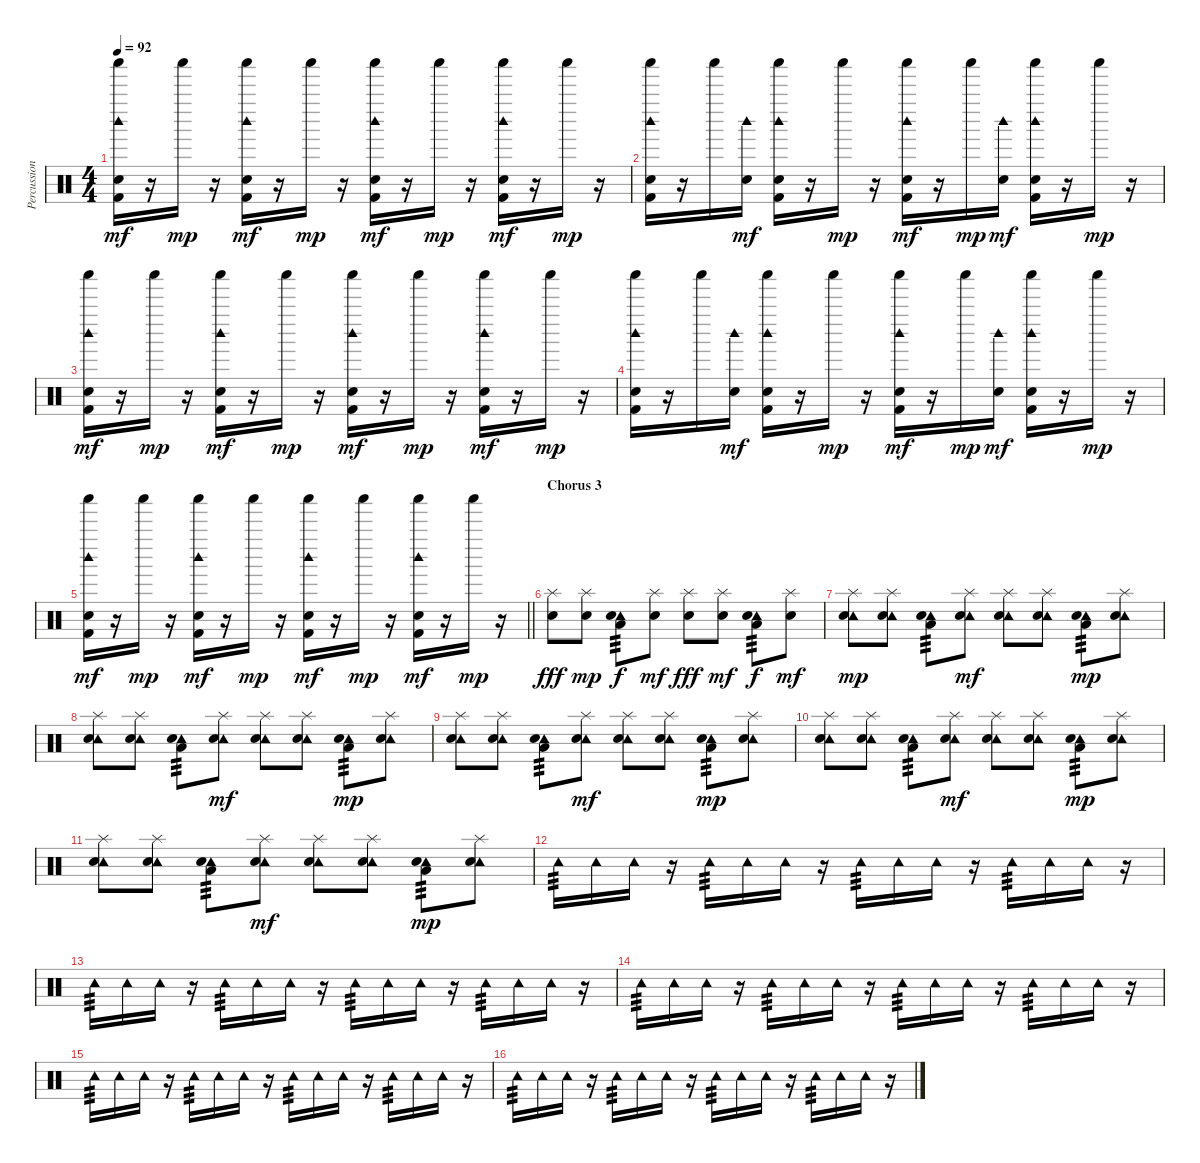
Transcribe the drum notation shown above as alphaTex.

\track ("Percussion" "Percussion") {instrument percussion}
\staff {score}
\articulation defaults
\ts (4 4)
\tempo 92
\clef neutral
\ks c
("Woodblock high (hit)" "Shaker (hit)" "Snare (hit) 2" "Kick (hit) 2").16{dy mf} r.16 "Shaker (hit)".16{dy mp} r.16 ("Woodblock high (hit)" "Shaker (hit)" "Snare (hit) 2" "Kick (hit) 2").16{dy mf} r.16 "Shaker (hit)".16{dy mp} r.16 ("Woodblock high (hit)" "Shaker (hit)" "Snare (hit) 2" "Kick (hit) 2").16{dy mf} r.16 "Shaker (hit)".16{dy mp} r.16 ("Woodblock high (hit)" "Shaker (hit)" "Snare (hit) 2" "Kick (hit) 2").16{dy mf} r.16 "Shaker (hit)".16{dy mp} r.16 |
("Woodblock high (hit)" "Shaker (hit)" "Snare (hit) 2" "Kick (hit) 2").16 r.16 "Shaker (hit)".16 ("Woodblock high (hit)" "Snare (hit) 2").16{dy mf} ("Woodblock high (hit)" "Shaker (hit)" "Snare (hit) 2" "Kick (hit) 2").16 r.16 "Shaker (hit)".16{dy mp} r.16 ("Woodblock high (hit)" "Shaker (hit)" "Snare (hit) 2" "Kick (hit) 2").16{dy mf} r.16 "Shaker (hit)".16{dy mp} ("Woodblock high (hit)" "Snare (hit) 2").16{dy mf} ("Woodblock high (hit)" "Shaker (hit)" "Snare (hit) 2" "Kick (hit) 2").16 r.16 "Shaker (hit)".16{dy mp} r.16 |
("Woodblock high (hit)" "Shaker (hit)" "Snare (hit) 2" "Kick (hit) 2").16{dy mf} r.16 "Shaker (hit)".16{dy mp} r.16 ("Woodblock high (hit)" "Shaker (hit)" "Snare (hit) 2" "Kick (hit) 2").16{dy mf} r.16 "Shaker (hit)".16{dy mp} r.16 ("Woodblock high (hit)" "Shaker (hit)" "Snare (hit) 2" "Kick (hit) 2").16{dy mf} r.16 "Shaker (hit)".16{dy mp} r.16 ("Woodblock high (hit)" "Shaker (hit)" "Snare (hit) 2" "Kick (hit) 2").16{dy mf} r.16 "Shaker (hit)".16{dy mp} r.16 |
("Woodblock high (hit)" "Shaker (hit)" "Snare (hit) 2" "Kick (hit) 2").16 r.16 "Shaker (hit)".16 ("Woodblock high (hit)" "Snare (hit) 2").16{dy mf} ("Woodblock high (hit)" "Shaker (hit)" "Snare (hit) 2" "Kick (hit) 2").16 r.16 "Shaker (hit)".16{dy mp} r.16 ("Woodblock high (hit)" "Shaker (hit)" "Snare (hit) 2" "Kick (hit) 2").16{dy mf} r.16 "Shaker (hit)".16{dy mp} ("Woodblock high (hit)" "Snare (hit) 2").16{dy mf} ("Woodblock high (hit)" "Shaker (hit)" "Snare (hit) 2" "Kick (hit) 2").16 r.16 "Shaker (hit)".16{dy mp} r.16 |
\barLineRight lightlight
("Woodblock high (hit)" "Shaker (hit)" "Snare (hit) 2" "Kick (hit) 2").16{dy mf} r.16 "Shaker (hit)".16{dy mp} r.16 ("Woodblock high (hit)" "Shaker (hit)" "Snare (hit) 2" "Kick (hit) 2").16{dy mf} r.16 "Shaker (hit)".16{dy mp} r.16 ("Woodblock high (hit)" "Shaker (hit)" "Snare (hit) 2" "Kick (hit) 2").16{dy mf} r.16 "Shaker (hit)".16{dy mp} r.16 ("Woodblock high (hit)" "Shaker (hit)" "Snare (hit) 2" "Kick (hit) 2").16{dy mf} r.16 "Shaker (hit)".16{dy mp} r.16 |
\section ("" "Chorus 3")
("Splash (hit)" "Snare (hit) 2").8{dy fff} ("Splash (hit)" "Snare (hit) 2").8{dy mp} ("Tambourine (hit)" "Low Floor Tom (hit)" "Snare (hit) 2").8{tp 3 dy f} ("Splash (hit)" "Snare (hit) 2").8{dy mf} ("Splash (hit)" "Snare (hit) 2").8{dy fff} ("Splash (hit)" "Snare (hit) 2").8{dy mf} ("Tambourine (hit)" "Low Floor Tom (hit)" "Snare (hit) 2").8{tp 3 dy f} ("Splash (hit)" "Snare (hit) 2").8{dy mf} |
("Tambourine (hit)" "Splash (hit)" "Snare (hit) 2").8{dy mp} ("Tambourine (hit)" "Splash (hit)" "Snare (hit) 2").8 ("Tambourine (hit)" "Low Floor Tom (hit)" "Snare (hit) 2").8{tp 3} ("Tambourine (hit)" "Splash (hit)" "Snare (hit) 2").8{dy mf} ("Tambourine (hit)" "Splash (hit)" "Snare (hit) 2").8 ("Tambourine (hit)" "Splash (hit)" "Snare (hit) 2").8 ("Tambourine (hit)" "Low Floor Tom (hit)" "Snare (hit) 2").8{tp 3 dy mp} ("Tambourine (hit)" "Splash (hit)" "Snare (hit) 2").8 |
("Tambourine (hit)" "Splash (hit)" "Snare (hit) 2").8 ("Tambourine (hit)" "Splash (hit)" "Snare (hit) 2").8 ("Tambourine (hit)" "Low Floor Tom (hit)" "Snare (hit) 2").8{tp 3} ("Tambourine (hit)" "Splash (hit)" "Snare (hit) 2").8{dy mf} ("Tambourine (hit)" "Splash (hit)" "Snare (hit) 2").8 ("Tambourine (hit)" "Splash (hit)" "Snare (hit) 2").8 ("Tambourine (hit)" "Low Floor Tom (hit)" "Snare (hit) 2").8{tp 3 dy mp} ("Tambourine (hit)" "Splash (hit)" "Snare (hit) 2").8 |
("Tambourine (hit)" "Splash (hit)" "Snare (hit) 2").8 ("Tambourine (hit)" "Splash (hit)" "Snare (hit) 2").8 ("Tambourine (hit)" "Low Floor Tom (hit)" "Snare (hit) 2").8{tp 3} ("Tambourine (hit)" "Splash (hit)" "Snare (hit) 2").8{dy mf} ("Tambourine (hit)" "Splash (hit)" "Snare (hit) 2").8 ("Tambourine (hit)" "Splash (hit)" "Snare (hit) 2").8 ("Tambourine (hit)" "Low Floor Tom (hit)" "Snare (hit) 2").8{tp 3 dy mp} ("Tambourine (hit)" "Splash (hit)" "Snare (hit) 2").8 |
("Tambourine (hit)" "Splash (hit)" "Snare (hit) 2").8 ("Tambourine (hit)" "Splash (hit)" "Snare (hit) 2").8 ("Tambourine (hit)" "Low Floor Tom (hit)" "Snare (hit) 2").8{tp 3} ("Tambourine (hit)" "Splash (hit)" "Snare (hit) 2").8{dy mf} ("Tambourine (hit)" "Splash (hit)" "Snare (hit) 2").8 ("Tambourine (hit)" "Splash (hit)" "Snare (hit) 2").8 ("Tambourine (hit)" "Low Floor Tom (hit)" "Snare (hit) 2").8{tp 3 dy mp} ("Tambourine (hit)" "Splash (hit)" "Snare (hit) 2").8 |
("Tambourine (hit)" "Splash (hit)" "Snare (hit) 2").8 ("Tambourine (hit)" "Splash (hit)" "Snare (hit) 2").8 ("Tambourine (hit)" "Low Floor Tom (hit)" "Snare (hit) 2").8{tp 3} ("Tambourine (hit)" "Splash (hit)" "Snare (hit) 2").8{dy mf} ("Tambourine (hit)" "Splash (hit)" "Snare (hit) 2").8 ("Tambourine (hit)" "Splash (hit)" "Snare (hit) 2").8 ("Tambourine (hit)" "Low Floor Tom (hit)" "Snare (hit) 2").8{tp 3 dy mp} ("Tambourine (hit)" "Splash (hit)" "Snare (hit) 2").8 |
"Tambourine (hit)".16{tp 3} "Tambourine (hit)".16 "Tambourine (hit)".16 r.16 "Tambourine (hit)".16{tp 3} "Tambourine (hit)".16 "Tambourine (hit)".16 r.16 "Tambourine (hit)".16{tp 3} "Tambourine (hit)".16 "Tambourine (hit)".16 r.16 "Tambourine (hit)".16{tp 3} "Tambourine (hit)".16 "Tambourine (hit)".16 r.16 |
"Tambourine (hit)".16{tp 3} "Tambourine (hit)".16 "Tambourine (hit)".16 r.16 "Tambourine (hit)".16{tp 3} "Tambourine (hit)".16 "Tambourine (hit)".16 r.16 "Tambourine (hit)".16{tp 3} "Tambourine (hit)".16 "Tambourine (hit)".16 r.16 "Tambourine (hit)".16{tp 3} "Tambourine (hit)".16 "Tambourine (hit)".16 r.16 |
"Tambourine (hit)".16{tp 3} "Tambourine (hit)".16 "Tambourine (hit)".16 r.16 "Tambourine (hit)".16{tp 3} "Tambourine (hit)".16 "Tambourine (hit)".16 r.16 "Tambourine (hit)".16{tp 3} "Tambourine (hit)".16 "Tambourine (hit)".16 r.16 "Tambourine (hit)".16{tp 3} "Tambourine (hit)".16 "Tambourine (hit)".16 r.16 |
"Tambourine (hit)".16{tp 3} "Tambourine (hit)".16 "Tambourine (hit)".16 r.16 "Tambourine (hit)".16{tp 3} "Tambourine (hit)".16 "Tambourine (hit)".16 r.16 "Tambourine (hit)".16{tp 3} "Tambourine (hit)".16 "Tambourine (hit)".16 r.16 "Tambourine (hit)".16{tp 3} "Tambourine (hit)".16 "Tambourine (hit)".16 r.16 |
"Tambourine (hit)".16{tp 3} "Tambourine (hit)".16 "Tambourine (hit)".16 r.16 "Tambourine (hit)".16{tp 3} "Tambourine (hit)".16 "Tambourine (hit)".16 r.16 "Tambourine (hit)".16{tp 3} "Tambourine (hit)".16 "Tambourine (hit)".16 r.16 "Tambourine (hit)".16{tp 3} "Tambourine (hit)".16 "Tambourine (hit)".16 r.16
